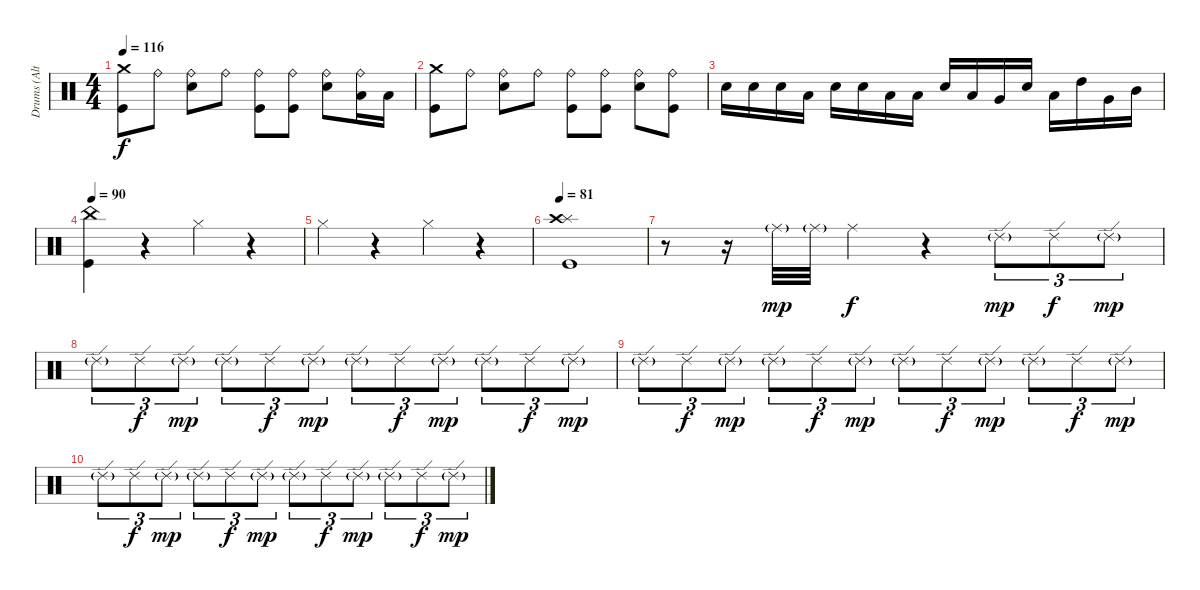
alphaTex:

\track ("Drums (Alternate - NOT ON MASTER)" "Drums (Alt") {mute instrument percussion}
\staff {score}
\articulation defaults
\ts (4 4)
\tempo 116
\clef neutral
\ks c
("Crash medium (hit)" "Kick (hit)").8{dy f} "Ride (bell)".8 ("Ride (bell)" "Snare (hit) 2").8 "Ride (bell)".8 ("Ride (bell)" "Kick (hit)").8 ("Ride (bell)" "Kick (hit)").8 ("Ride (bell)" "Snare (hit) 2").8 ("Ride (bell)" "Low Tom (hit)").16 "Low Tom (hit)".16 |
("Crash medium (hit)" "Kick (hit)").8 "Ride (bell)".8 ("Ride (bell)" "Snare (hit) 2").8 "Ride (bell)".8 ("Ride (bell)" "Kick (hit)").8 ("Ride (bell)" "Kick (hit)").8 ("Ride (bell)" "Snare (hit) 2").8 ("Ride (bell)" "Kick (hit)").8 |
"Snare (hit) 2".16 "Snare (hit) 2".16 "Snare (hit) 2".16 "Low Tom (hit)".16 "Snare (hit) 2".16 "Snare (hit) 2".16 "Low Tom (hit)".16 "Low Tom (hit)".16 "Snare (hit) 2".16 "Low Tom (hit)".16 "Very Low Tom (hit)".16 "Snare (hit) 2".16 "Low Tom (hit)".16 "High Tom (hit)".16 "Very Low Tom (hit)".16 "Mid Tom (hit)".16 |
\tempo 90
("Kick (hit)" "China (hit)").4 r.4 "Hi-Hat (closed)".4 r.4 |
"Hi-Hat (closed)".4 r.4 "Hi-Hat (closed)".4 r.4 |
\tempo 81
("Splash (hit)" "Crash high (hit)" "Kick (hit)").1 |
r.8 r.16 "Ride (middle)"{g}.32{dy mp} "Ride (middle)"{g}.32 "Ride (middle)".4{dy f} r.4 "Ride (edge) 2"{g}.8{tu (3 2) dy mp} "Ride (edge) 2".8{tu (3 2) dy f} "Ride (edge) 2"{g}.8{tu (3 2) dy mp} |
"Ride (edge) 2"{g}.8{tu (3 2)} "Ride (edge) 2".8{tu (3 2) dy f} "Ride (edge) 2"{g}.8{tu (3 2) dy mp} "Ride (edge) 2"{g}.8{tu (3 2)} "Ride (edge) 2".8{tu (3 2) dy f} "Ride (edge) 2"{g}.8{tu (3 2) dy mp} "Ride (edge) 2"{g}.8{tu (3 2)} "Ride (edge) 2".8{tu (3 2) dy f} "Ride (edge) 2"{g}.8{tu (3 2) dy mp} "Ride (edge) 2"{g}.8{tu (3 2)} "Ride (edge) 2".8{tu (3 2) dy f} "Ride (edge) 2"{g}.8{tu (3 2) dy mp} |
"Ride (edge) 2"{g}.8{tu (3 2)} "Ride (edge) 2".8{tu (3 2) dy f} "Ride (edge) 2"{g}.8{tu (3 2) dy mp} "Ride (edge) 2"{g}.8{tu (3 2)} "Ride (edge) 2".8{tu (3 2) dy f} "Ride (edge) 2"{g}.8{tu (3 2) dy mp} "Ride (edge) 2"{g}.8{tu (3 2)} "Ride (edge) 2".8{tu (3 2) dy f} "Ride (edge) 2"{g}.8{tu (3 2) dy mp} "Ride (edge) 2"{g}.8{tu (3 2)} "Ride (edge) 2".8{tu (3 2) dy f} "Ride (edge) 2"{g}.8{tu (3 2) dy mp} |
"Ride (edge) 2"{g}.8{tu (3 2)} "Ride (edge) 2".8{tu (3 2) dy f} "Ride (edge) 2"{g}.8{tu (3 2) dy mp} "Ride (edge) 2"{g}.8{tu (3 2)} "Ride (edge) 2".8{tu (3 2) dy f} "Ride (edge) 2"{g}.8{tu (3 2) dy mp} "Ride (edge) 2"{g}.8{tu (3 2)} "Ride (edge) 2".8{tu (3 2) dy f} "Ride (edge) 2"{g}.8{tu (3 2) dy mp} "Ride (edge) 2"{g}.8{tu (3 2)} "Ride (edge) 2".8{tu (3 2) dy f} "Ride (edge) 2"{g}.8{tu (3 2) dy mp}
